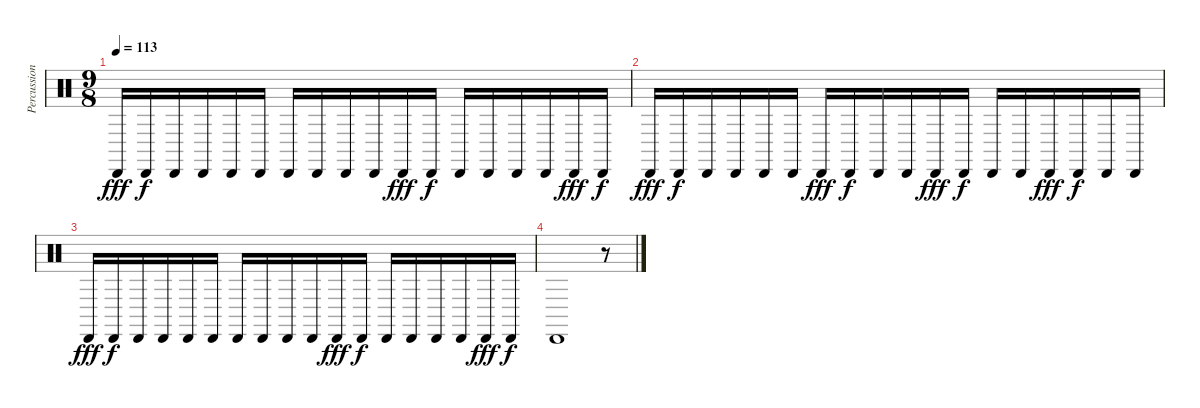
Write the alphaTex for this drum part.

\track ("Percussion" "Percussion") {instrument percussion}
\staff {score}
\articulation defaults
\ts (9 8)
\tempo 113
\clef neutral
\ks c "Cabasa (hit)".16{dy fff} "Cabasa (hit)".16{dy f} "Cabasa (hit)".16 "Cabasa (hit)".16 "Cabasa (hit)".16 "Cabasa (hit)".16 "Cabasa (hit)".16 "Cabasa (hit)".16 "Cabasa (hit)".16 "Cabasa (hit)".16 "Cabasa (hit)".16{dy fff} "Cabasa (hit)".16{dy f} "Cabasa (hit)".16 "Cabasa (hit)".16 "Cabasa (hit)".16 "Cabasa (hit)".16 "Cabasa (hit)".16{dy fff} "Cabasa (hit)".16{dy f}
|
"Cabasa (hit)".16{dy fff} "Cabasa (hit)".16{dy f} "Cabasa (hit)".16 "Cabasa (hit)".16 "Cabasa (hit)".16 "Cabasa (hit)".16 "Cabasa (hit)".16{dy fff} "Cabasa (hit)".16{dy f} "Cabasa (hit)".16 "Cabasa (hit)".16 "Cabasa (hit)".16{dy fff} "Cabasa (hit)".16{dy f} "Cabasa (hit)".16 "Cabasa (hit)".16 "Cabasa (hit)".16{dy fff} "Cabasa (hit)".16{dy f} "Cabasa (hit)".16 "Cabasa (hit)".16 |
"Cabasa (hit)".16{dy fff} "Cabasa (hit)".16{dy f} "Cabasa (hit)".16 "Cabasa (hit)".16 "Cabasa (hit)".16 "Cabasa (hit)".16 "Cabasa (hit)".16 "Cabasa (hit)".16 "Cabasa (hit)".16 "Cabasa (hit)".16 "Cabasa (hit)".16{dy fff} "Cabasa (hit)".16{dy f} "Cabasa (hit)".16 "Cabasa (hit)".16 "Cabasa (hit)".16 "Cabasa (hit)".16 "Cabasa (hit)".16{dy fff} "Cabasa (hit)".16{dy f} |
"Cabasa (hit)".1 r.8
